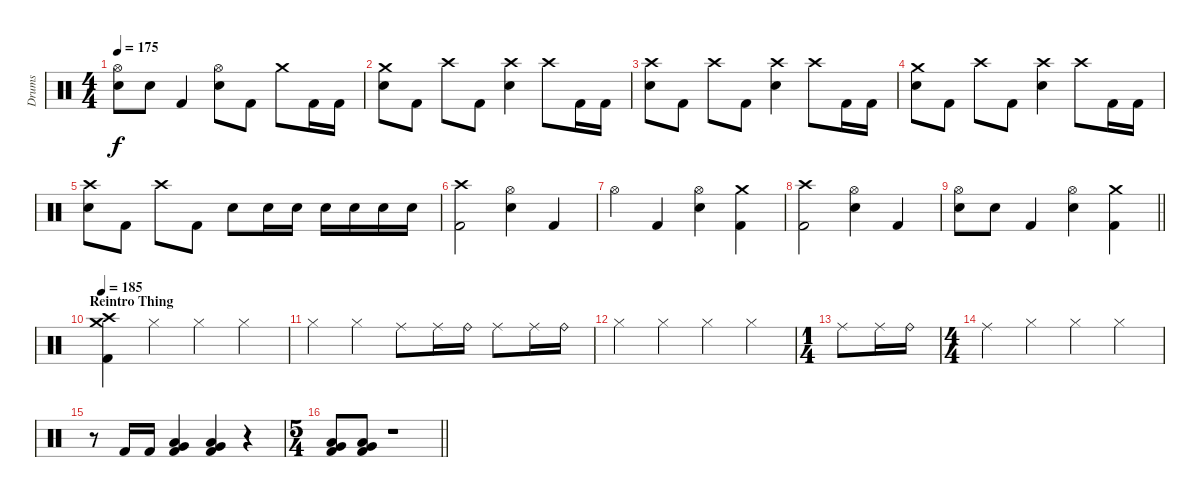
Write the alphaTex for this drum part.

\track ("Drums" "Drums") {instrument percussion}
\staff {score}
\articulation defaults
\ts (4 4)
\tempo 175
\clef neutral
\ks c
("Hi-Hat (open)" "Electric Snare (hit)").8{dy f} "Electric Snare (hit)".8 "Kick (hit) 2".4 ("Hi-Hat (open)" "Electric Snare (hit)").8 "Kick (hit) 2".8 "Crash medium (hit)".8 "Kick (hit) 2".16 "Kick (hit) 2".16 |
("Crash medium (hit)" "Electric Snare (hit)").8 "Kick (hit) 2".8 "Crash high (hit)".8 "Kick (hit) 2".8 ("Crash high (hit)" "Electric Snare (hit)").4 "Crash high (hit)".8 "Kick (hit) 2".16 "Kick (hit) 2".16 |
("Crash high (hit)" "Electric Snare (hit)").8 "Kick (hit) 2".8 "Crash high (hit)".8 "Kick (hit) 2".8 ("Crash high (hit)" "Electric Snare (hit)").4 "Crash high (hit)".8 "Kick (hit) 2".16 "Kick (hit) 2".16 |
("Crash medium (hit)" "Electric Snare (hit)").8 "Kick (hit) 2".8 "Crash high (hit)".8 "Kick (hit) 2".8 ("Crash high (hit)" "Electric Snare (hit)").4 "Crash high (hit)".8 "Kick (hit) 2".16 "Kick (hit) 2".16 |
("Crash high (hit)" "Electric Snare (hit)").8 "Kick (hit) 2".8 "Crash high (hit)".8 "Kick (hit) 2".8 "Electric Snare (hit)".8 "Electric Snare (hit)".16 "Electric Snare (hit)".16 "Electric Snare (hit)".16 "Electric Snare (hit)".16 "Electric Snare (hit)".16 "Electric Snare (hit)".16 |
("Crash high (hit)" "Kick (hit) 2").2 ("Hi-Hat (open)" "Electric Snare (hit)").4 "Kick (hit) 2".4 |
"Hi-Hat (open)".4 "Kick (hit) 2".4 ("Hi-Hat (open)" "Electric Snare (hit)").4 ("Crash medium (hit)" "Kick (hit) 2").4 |
("Crash high (hit)" "Kick (hit) 2").2 ("Hi-Hat (open)" "Electric Snare (hit)").4 "Kick (hit) 2".4 |
\barLineRight lightlight
("Hi-Hat (open)" "Electric Snare (hit)").8 "Electric Snare (hit)".8 "Kick (hit) 2".4 ("Hi-Hat (open)" "Electric Snare (hit)").4 ("Crash medium (hit)" "Kick (hit) 2").4 |
\section ("" "Reintro Thing")
\tempo 185
("Crash high (hit)" "Crash medium (hit)" "Kick (hit) 2").4 "Hi-Hat (closed)".4 "Hi-Hat (closed)".4 "Hi-Hat (closed)".4 |
"Hi-Hat (closed)".4 "Hi-Hat (closed)".4 "Ride (middle)".8 "Ride (middle)".16 "Ride (bell)".16 "Ride (middle)".8 "Ride (middle)".16 "Ride (bell)".16 |
"Hi-Hat (closed)".4 "Hi-Hat (closed)".4 "Hi-Hat (closed)".4 "Hi-Hat (closed)".4 |
\ts (1 4)
"Ride (middle)".8 "Ride (middle)".16 "Ride (bell)".16 |
\ts (4 4)
"Ride (middle)".4 "Hi-Hat (closed)".4 "Hi-Hat (closed)".4 "Hi-Hat (closed)".4 |
r.8 "Kick (hit) 2".16 "Kick (hit) 2".16 ("Low Floor Tom (hit)" "Very Low Tom (hit)" "Kick (hit) 2").4 ("Low Floor Tom (hit)" "Very Low Tom (hit)" "Kick (hit) 2").4 r.4 |
\ts (5 4)
\barLineRight lightlight
("Low Floor Tom (hit)" "Very Low Tom (hit)" "Kick (hit) 2").8 ("Low Floor Tom (hit)" "Very Low Tom (hit)" "Kick (hit) 2").8 r.1
